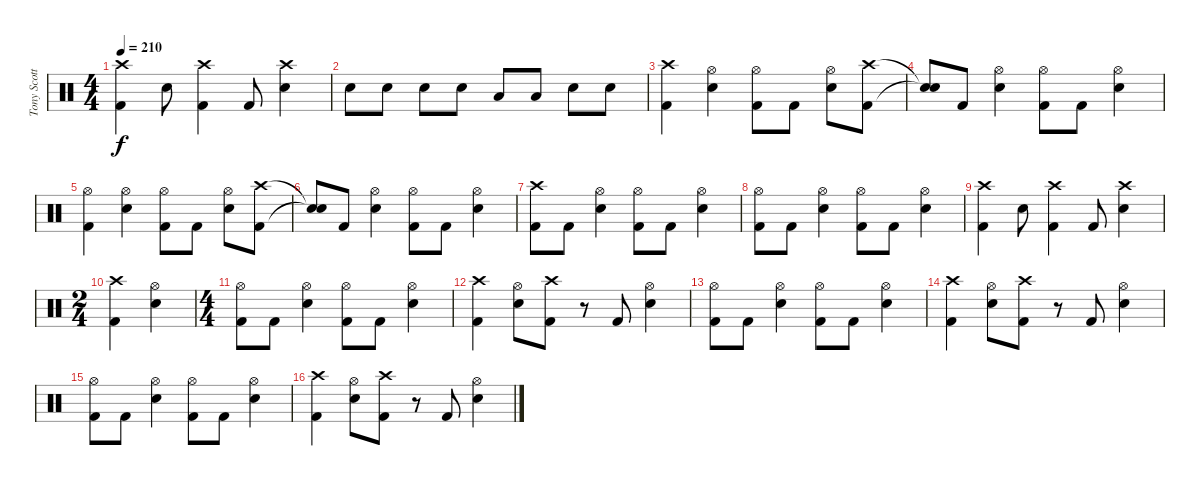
\track ("Tony Scotto" "Tony Scott") {instrument percussion}
\staff {score}
\articulation defaults
\ts (4 4)
\tempo 210
\clef neutral
\ks c
("Crash high (hit)" "Kick (hit) 2").4{dy f} "Snare (hit) 2".8 ("Crash high (hit)" "Kick (hit) 2").4 "Kick (hit) 2".8 ("Crash high (hit)" "Snare (hit) 2").4 |
"Snare (hit) 2".8 "Snare (hit) 2".8 "Snare (hit) 2".8 "Snare (hit) 2".8 "Low Tom (hit)".8 "Low Tom (hit)".8 "Snare (hit) 2".8 "Snare (hit) 2".8 |
("Crash high (hit)" "Kick (hit) 2").4 ("Hi-Hat (open)" "Snare (hit) 2").4 ("Hi-Hat (open)" "Kick (hit) 2").8 "Kick (hit) 2".8 ("Hi-Hat (open)" "Snare (hit) 2").8 ("Crash high (hit)" "Kick (hit) 2").8 |
("Snare (hit)"{t} "Snare (hit)"{t}).8 "Kick (hit) 2".8 ("Hi-Hat (open)" "Snare (hit) 2").4 ("Hi-Hat (open)" "Kick (hit) 2").8 "Kick (hit) 2".8 ("Hi-Hat (open)" "Snare (hit) 2").4 |
("Hi-Hat (open)" "Kick (hit) 2").4 ("Hi-Hat (open)" "Snare (hit) 2").4 ("Hi-Hat (open)" "Kick (hit) 2").8 "Kick (hit) 2".8 ("Hi-Hat (open)" "Snare (hit) 2").8 ("Crash high (hit)" "Kick (hit) 2").8 |
("Snare (hit)"{t} "Snare (hit)"{t}).8 "Kick (hit) 2".8 ("Hi-Hat (open)" "Snare (hit) 2").4 ("Hi-Hat (open)" "Kick (hit) 2").8 "Kick (hit) 2".8 ("Hi-Hat (open)" "Snare (hit) 2").4 |
("Crash high (hit)" "Kick (hit) 2").8 "Kick (hit) 2".8 ("Hi-Hat (open)" "Snare (hit) 2").4 ("Hi-Hat (open)" "Kick (hit) 2").8 "Kick (hit) 2".8 ("Hi-Hat (open)" "Snare (hit) 2").4 |
("Hi-Hat (open)" "Kick (hit) 2").8 "Kick (hit) 2".8 ("Hi-Hat (open)" "Snare (hit) 2").4 ("Hi-Hat (open)" "Kick (hit) 2").8 "Kick (hit) 2".8 ("Hi-Hat (open)" "Snare (hit) 2").4 |
("Crash high (hit)" "Kick (hit) 2").4 "Snare (hit) 2".8 ("Crash high (hit)" "Kick (hit) 2").4 "Kick (hit) 2".8 ("Crash high (hit)" "Snare (hit) 2").4 |
\ts (2 4)
("Crash high (hit)" "Kick (hit) 2").4 ("Hi-Hat (open)" "Snare (hit) 2").4 |
\ts (4 4)
("Hi-Hat (open)" "Kick (hit) 2").8 "Kick (hit) 2".8 ("Hi-Hat (open)" "Snare (hit) 2").4 ("Hi-Hat (open)" "Kick (hit) 2").8 "Kick (hit) 2".8 ("Hi-Hat (open)" "Snare (hit) 2").4 |
("Crash high (hit)" "Kick (hit) 2").4 ("Hi-Hat (open)" "Snare (hit) 2").8 ("Crash high (hit)" "Kick (hit) 2").8 r.8 "Kick (hit) 2".8 ("Hi-Hat (open)" "Snare (hit) 2").4 |
("Hi-Hat (open)" "Kick (hit) 2").8 "Kick (hit) 2".8 ("Hi-Hat (open)" "Snare (hit) 2").4 ("Hi-Hat (open)" "Kick (hit) 2").8 "Kick (hit) 2".8 ("Hi-Hat (open)" "Snare (hit) 2").4 |
("Crash high (hit)" "Kick (hit) 2").4 ("Hi-Hat (open)" "Snare (hit) 2").8 ("Crash high (hit)" "Kick (hit) 2").8 r.8 "Kick (hit) 2".8 ("Hi-Hat (open)" "Snare (hit) 2").4 |
("Hi-Hat (open)" "Kick (hit) 2").8 "Kick (hit) 2".8 ("Hi-Hat (open)" "Snare (hit) 2").4 ("Hi-Hat (open)" "Kick (hit) 2").8 "Kick (hit) 2".8 ("Hi-Hat (open)" "Snare (hit) 2").4 |
("Crash high (hit)" "Kick (hit) 2").4 ("Hi-Hat (open)" "Snare (hit) 2").8 ("Crash high (hit)" "Kick (hit) 2").8 r.8 "Kick (hit) 2".8 ("Hi-Hat (open)" "Snare (hit) 2").4
